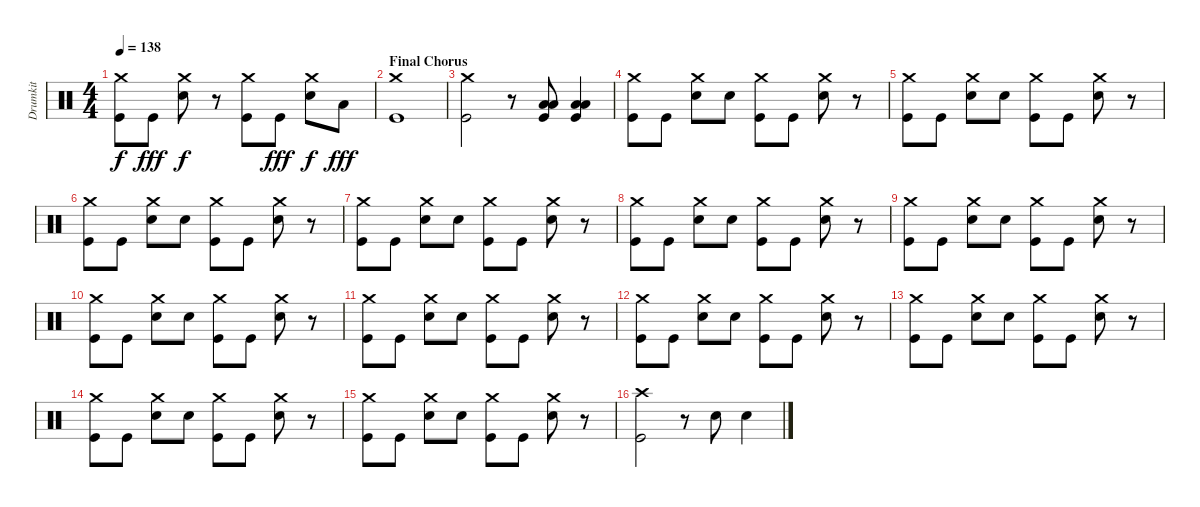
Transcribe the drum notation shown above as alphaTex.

\track ("Drumkit" "Drumkit") {instrument percussion}
\staff {score}
\articulation defaults
\ts (4 4)
\tempo 138
\clef neutral
\ks c
("Crash medium (hit)" "Kick (hit)").8{dy f} "Kick (hit)".8{dy fff} ("Crash medium (hit)" "Snare (hit) 2").8{dy f} r.8 ("Crash medium (hit)" "Kick (hit)").8 "Kick (hit)".8{dy fff} ("Crash medium (hit)" "Snare (hit) 2").8{dy f} "Low Tom (hit)".8{dy fff} |
\section ("" "Final Chorus")
("Crash medium (hit)" "Kick (hit)").1 |
("Crash medium (hit)" "Kick (hit)").2 r.8 ("Low Tom (hit)" "Low Floor Tom (hit)" "Kick (hit)").8 ("Low Tom (hit)" "Low Floor Tom (hit)" "Kick (hit)").4 |
("Crash medium (hit)" "Kick (hit)").8 "Kick (hit)".8 ("Crash medium (hit)" "Snare (hit) 2").8 "Snare (hit) 2".8 ("Crash medium (hit)" "Kick (hit)").8 "Kick (hit)".8 ("Crash medium (hit)" "Snare (hit) 2").8 r.8 |
("Crash medium (hit)" "Kick (hit)").8 "Kick (hit)".8 ("Crash medium (hit)" "Snare (hit) 2").8 "Snare (hit) 2".8 ("Crash medium (hit)" "Kick (hit)").8 "Kick (hit)".8 ("Crash medium (hit)" "Snare (hit) 2").8 r.8 |
("Crash medium (hit)" "Kick (hit)").8 "Kick (hit)".8 ("Crash medium (hit)" "Snare (hit) 2").8 "Snare (hit) 2".8 ("Crash medium (hit)" "Kick (hit)").8 "Kick (hit)".8 ("Crash medium (hit)" "Snare (hit) 2").8 r.8 |
("Crash medium (hit)" "Kick (hit)").8 "Kick (hit)".8 ("Crash medium (hit)" "Snare (hit) 2").8 "Snare (hit) 2".8 ("Crash medium (hit)" "Kick (hit)").8 "Kick (hit)".8 ("Crash medium (hit)" "Snare (hit) 2").8 r.8 |
("Crash medium (hit)" "Kick (hit)").8 "Kick (hit)".8 ("Crash medium (hit)" "Snare (hit) 2").8 "Snare (hit) 2".8 ("Crash medium (hit)" "Kick (hit)").8 "Kick (hit)".8 ("Crash medium (hit)" "Snare (hit) 2").8 r.8 |
("Crash medium (hit)" "Kick (hit)").8 "Kick (hit)".8 ("Crash medium (hit)" "Snare (hit) 2").8 "Snare (hit) 2".8 ("Crash medium (hit)" "Kick (hit)").8 "Kick (hit)".8 ("Crash medium (hit)" "Snare (hit) 2").8 r.8 |
("Crash medium (hit)" "Kick (hit)").8 "Kick (hit)".8 ("Crash medium (hit)" "Snare (hit) 2").8 "Snare (hit) 2".8 ("Crash medium (hit)" "Kick (hit)").8 "Kick (hit)".8 ("Crash medium (hit)" "Snare (hit) 2").8 r.8 |
("Crash medium (hit)" "Kick (hit)").8 "Kick (hit)".8 ("Crash medium (hit)" "Snare (hit) 2").8 "Snare (hit) 2".8 ("Crash medium (hit)" "Kick (hit)").8 "Kick (hit)".8 ("Crash medium (hit)" "Snare (hit) 2").8 r.8 |
("Crash medium (hit)" "Kick (hit)").8 "Kick (hit)".8 ("Crash medium (hit)" "Snare (hit) 2").8 "Snare (hit) 2".8 ("Crash medium (hit)" "Kick (hit)").8 "Kick (hit)".8 ("Crash medium (hit)" "Snare (hit) 2").8 r.8 |
("Crash medium (hit)" "Kick (hit)").8 "Kick (hit)".8 ("Crash medium (hit)" "Snare (hit) 2").8 "Snare (hit) 2".8 ("Crash medium (hit)" "Kick (hit)").8 "Kick (hit)".8 ("Crash medium (hit)" "Snare (hit) 2").8 r.8 |
("Crash medium (hit)" "Kick (hit)").8 "Kick (hit)".8 ("Crash medium (hit)" "Snare (hit) 2").8 "Snare (hit) 2".8 ("Crash medium (hit)" "Kick (hit)").8 "Kick (hit)".8 ("Crash medium (hit)" "Snare (hit) 2").8 r.8 |
("Crash medium (hit)" "Kick (hit)").8 "Kick (hit)".8 ("Crash medium (hit)" "Snare (hit) 2").8 "Snare (hit) 2".8 ("Crash medium (hit)" "Kick (hit)").8 "Kick (hit)".8 ("Crash medium (hit)" "Snare (hit) 2").8 r.8 |
("Crash high (hit)" "Kick (hit)").2 r.8 "Snare (hit) 2".8 "Snare (hit) 2".4
